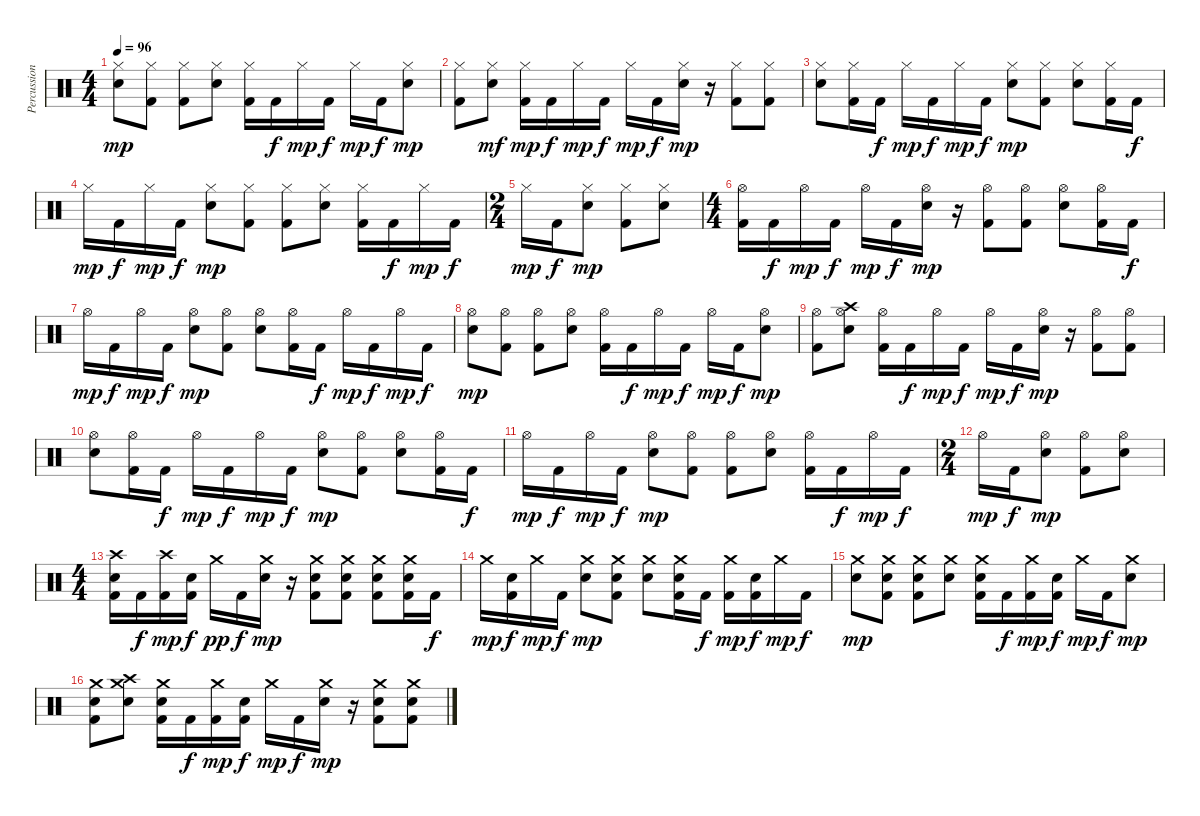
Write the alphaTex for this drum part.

\track ("Percussions" "Percussion") {instrument percussion}
\staff {score}
\articulation defaults
\ts (4 4)
\tempo 96
\clef neutral
\ks c
("Hi-Hat (closed)" "Snare (hit) 2").8{dy mp} ("Hi-Hat (closed)" "Kick (hit) 2").8 ("Hi-Hat (closed)" "Kick (hit) 2").8 ("Hi-Hat (closed)" "Snare (hit) 2").8 ("Hi-Hat (closed)" "Kick (hit) 2").16 "Kick (hit) 2".16{dy f} "Hi-Hat (closed)".16{dy mp} "Kick (hit) 2".16{dy f} "Hi-Hat (closed)".16{dy mp} "Kick (hit) 2".16{dy f} ("Hi-Hat (closed)" "Snare (hit) 2").8{dy mp} |
("Hi-Hat (closed)" "Kick (hit) 2").8 ("Hi-Hat (closed)" "Snare (hit) 2").8{dy mf} ("Hi-Hat (closed)" "Kick (hit) 2").16{dy mp} "Kick (hit) 2".16{dy f} "Hi-Hat (closed)".16{dy mp} "Kick (hit) 2".16{dy f} "Hi-Hat (closed)".16{dy mp} "Kick (hit) 2".16{dy f} ("Hi-Hat (closed)" "Snare (hit) 2").16{dy mp} r.16 ("Hi-Hat (closed)" "Kick (hit) 2").8 ("Hi-Hat (closed)" "Kick (hit) 2").8 |
("Hi-Hat (closed)" "Snare (hit) 2").8 ("Hi-Hat (closed)" "Kick (hit) 2").16 "Kick (hit) 2".16{dy f} "Hi-Hat (closed)".16{dy mp} "Kick (hit) 2".16{dy f} "Hi-Hat (closed)".16{dy mp} "Kick (hit) 2".16{dy f} ("Hi-Hat (closed)" "Snare (hit) 2").8{dy mp} ("Hi-Hat (closed)" "Kick (hit) 2").8 ("Hi-Hat (closed)" "Snare (hit) 2").8 ("Hi-Hat (closed)" "Kick (hit) 2").16 "Kick (hit) 2".16{dy f} |
"Hi-Hat (closed)".16{dy mp} "Kick (hit) 2".16{dy f} "Hi-Hat (closed)".16{dy mp} "Kick (hit) 2".16{dy f} ("Hi-Hat (closed)" "Snare (hit) 2").8{dy mp} ("Hi-Hat (closed)" "Kick (hit) 2").8 ("Hi-Hat (closed)" "Kick (hit) 2").8 ("Hi-Hat (closed)" "Snare (hit) 2").8 ("Hi-Hat (closed)" "Kick (hit) 2").16 "Kick (hit) 2".16{dy f} "Hi-Hat (closed)".16{dy mp} "Kick (hit) 2".16{dy f} |
\ts (2 4)
"Hi-Hat (closed)".16{dy mp} "Kick (hit) 2".16{dy f} ("Hi-Hat (closed)" "Snare (hit) 2").8{dy mp} ("Hi-Hat (closed)" "Kick (hit) 2").8 ("Hi-Hat (closed)" "Snare (hit) 2").8 |
\ts (4 4)
("Hi-Hat (open)" "Kick (hit) 2").16 "Kick (hit) 2".16{dy f} "Hi-Hat (open)".16{dy mp} "Kick (hit) 2".16{dy f} "Hi-Hat (open)".16{dy mp} "Kick (hit) 2".16{dy f} ("Hi-Hat (open)" "Snare (hit) 2").16{dy mp} r.16 ("Hi-Hat (open)" "Kick (hit) 2").8 ("Hi-Hat (open)" "Kick (hit) 2").8 ("Hi-Hat (open)" "Snare (hit) 2").8 ("Hi-Hat (open)" "Kick (hit) 2").16 "Kick (hit) 2".16{dy f} |
"Hi-Hat (open)".16{dy mp} "Kick (hit) 2".16{dy f} "Hi-Hat (open)".16{dy mp} "Kick (hit) 2".16{dy f} ("Hi-Hat (open)" "Snare (hit) 2").8{dy mp} ("Hi-Hat (open)" "Kick (hit) 2").8 ("Hi-Hat (open)" "Snare (hit) 2").8 ("Hi-Hat (open)" "Kick (hit) 2").16 "Kick (hit) 2".16{dy f} "Hi-Hat (open)".16{dy mp} "Kick (hit) 2".16{dy f} "Hi-Hat (open)".16{dy mp} "Kick (hit) 2".16{dy f} |
("Hi-Hat (open)" "Snare (hit) 2").8{dy mp} ("Hi-Hat (open)" "Kick (hit) 2").8 ("Hi-Hat (open)" "Kick (hit) 2").8 ("Hi-Hat (open)" "Snare (hit) 2").8 ("Hi-Hat (open)" "Kick (hit) 2").16 "Kick (hit) 2".16{dy f} "Hi-Hat (open)".16{dy mp} "Kick (hit) 2".16{dy f} "Hi-Hat (open)".16{dy mp} "Kick (hit) 2".16{dy f} ("Hi-Hat (open)" "Snare (hit) 2").8{dy mp} |
("Hi-Hat (open)" "Kick (hit) 2").8 ("Hi-Hat (open)" "Crash high (hit)" "Snare (hit) 2").8 ("Hi-Hat (open)" "Kick (hit) 2").16 "Kick (hit) 2".16{dy f} "Hi-Hat (open)".16{dy mp} "Kick (hit) 2".16{dy f} "Hi-Hat (open)".16{dy mp} "Kick (hit) 2".16{dy f} ("Hi-Hat (open)" "Snare (hit) 2").16{dy mp} r.16 ("Hi-Hat (open)" "Kick (hit) 2").8 ("Hi-Hat (open)" "Kick (hit) 2").8 |
("Hi-Hat (open)" "Snare (hit) 2").8 ("Hi-Hat (open)" "Kick (hit) 2").16 "Kick (hit) 2".16{dy f} "Hi-Hat (open)".16{dy mp} "Kick (hit) 2".16{dy f} "Hi-Hat (open)".16{dy mp} "Kick (hit) 2".16{dy f} ("Hi-Hat (open)" "Snare (hit) 2").8{dy mp} ("Hi-Hat (open)" "Kick (hit) 2").8 ("Hi-Hat (open)" "Snare (hit) 2").8 ("Hi-Hat (open)" "Kick (hit) 2").16 "Kick (hit) 2".16{dy f} |
"Hi-Hat (open)".16{dy mp} "Kick (hit) 2".16{dy f} "Hi-Hat (open)".16{dy mp} "Kick (hit) 2".16{dy f} ("Hi-Hat (open)" "Snare (hit) 2").8{dy mp} ("Hi-Hat (open)" "Kick (hit) 2").8 ("Hi-Hat (open)" "Kick (hit) 2").8 ("Hi-Hat (open)" "Snare (hit) 2").8 ("Hi-Hat (open)" "Kick (hit) 2").16 "Kick (hit) 2".16{dy f} "Hi-Hat (open)".16{dy mp} "Kick (hit) 2".16{dy f} |
\ts (2 4)
"Hi-Hat (open)".16{dy mp} "Kick (hit) 2".16{dy f} ("Hi-Hat (open)" "Snare (hit) 2").8{dy mp} ("Hi-Hat (open)" "Kick (hit) 2").8 ("Hi-Hat (open)" "Snare (hit) 2").8 |
\ts (4 4)
("Crash high (hit)" "Snare (hit) 2" "Kick (hit) 2").16 "Kick (hit) 2".16{dy f} ("Crash high (hit)" "Kick (hit) 2").16{dy mp} ("Snare (hit) 2" "Kick (hit) 2").16{dy f} "Crash medium (hit)".16{dy pp} "Kick (hit) 2".16{dy f} ("Crash medium (hit)" "Snare (hit) 2").16{dy mp} r.16 ("Crash medium (hit)" "Snare (hit) 2" "Kick (hit) 2").8 ("Crash medium (hit)" "Snare (hit) 2" "Kick (hit) 2").8 ("Crash medium (hit)" "Snare (hit) 2" "Kick (hit) 2").8 ("Crash medium (hit)" "Snare (hit) 2" "Kick (hit) 2").16 "Kick (hit) 2".16{dy f} |
"Crash medium (hit)".16{dy mp} ("Snare (hit) 2" "Kick (hit) 2").16{dy f} "Crash medium (hit)".16{dy mp} "Kick (hit) 2".16{dy f} ("Crash medium (hit)" "Snare (hit) 2").8{dy mp} ("Crash medium (hit)" "Snare (hit) 2" "Kick (hit) 2").8 ("Crash medium (hit)" "Snare (hit) 2").8 ("Crash medium (hit)" "Snare (hit) 2" "Kick (hit) 2").16 "Kick (hit) 2".16{dy f} ("Crash medium (hit)" "Kick (hit) 2").16{dy mp} ("Snare (hit) 2" "Kick (hit) 2").16{dy f} "Crash medium (hit)".16{dy mp} "Kick (hit) 2".16{dy f} |
("Crash medium (hit)" "Snare (hit) 2").8{dy mp} ("Crash medium (hit)" "Snare (hit) 2" "Kick (hit) 2").8 ("Crash medium (hit)" "Snare (hit) 2" "Kick (hit) 2").8 ("Crash medium (hit)" "Snare (hit) 2").8 ("Crash medium (hit)" "Snare (hit) 2" "Kick (hit) 2").16 "Kick (hit) 2".16{dy f} ("Crash medium (hit)" "Kick (hit) 2").16{dy mp} ("Snare (hit) 2" "Kick (hit) 2").16{dy f} "Crash medium (hit)".16{dy mp} "Kick (hit) 2".16{dy f} ("Crash medium (hit)" "Snare (hit) 2").8{dy mp} |
("Crash medium (hit)" "Snare (hit) 2" "Kick (hit) 2").8 ("Crash medium (hit)" "Crash high (hit)" "Snare (hit) 2").8 ("Crash medium (hit)" "Snare (hit) 2" "Kick (hit) 2").16 "Kick (hit) 2".16{dy f} ("Crash medium (hit)" "Kick (hit) 2").16{dy mp} ("Snare (hit) 2" "Kick (hit) 2").16{dy f} "Crash medium (hit)".16{dy mp} "Kick (hit) 2".16{dy f} ("Crash medium (hit)" "Snare (hit) 2").16{dy mp} r.16 ("Crash medium (hit)" "Snare (hit) 2" "Kick (hit) 2").8 ("Crash medium (hit)" "Snare (hit) 2" "Kick (hit) 2").8
